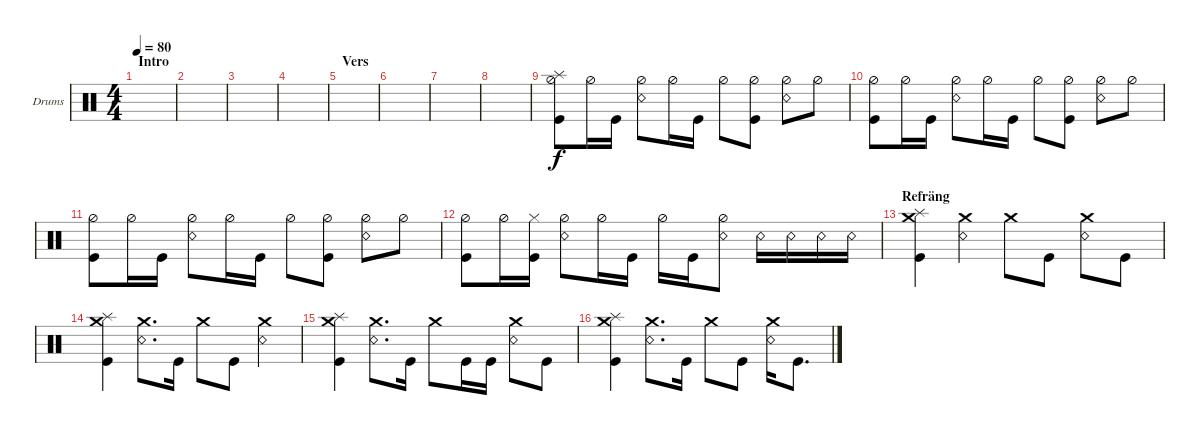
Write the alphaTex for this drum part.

\defaultSystemsLayout 4
\bracketExtendMode groupsimilarinstruments
\firstSystemTrackNameOrientation horizontal
\otherSystemsTrackNameOrientation horizontal
\track ("Drums" "Drums") {instrument percussion}
\staff {score}
\articulation defaults
\ts (4 4)
\section ("" "Intro")
\tempo 80
\clef neutral
\ks c
|
|
|
|
\section ("" "Vers")
|
|
|
|
("Hi-Hat (half)" "Kick (hit)" "Splash (hit)").8 "Hi-Hat (half)".16 "Kick (hit)".16 ("Hi-Hat (half)" "Snare (rim shot)").8 "Hi-Hat (half)".16 "Kick (hit)".16 "Hi-Hat (half)".8 ("Hi-Hat (half)" "Kick (hit)").8 ("Hi-Hat (half)" "Snare (rim shot)").8 "Hi-Hat (half)".8 |
("Hi-Hat (half)" "Kick (hit)").8 "Hi-Hat (half)".16 "Kick (hit)".16 ("Hi-Hat (half)" "Snare (rim shot)").8 "Hi-Hat (half)".16 "Kick (hit)".16 "Hi-Hat (half)".8 ("Hi-Hat (half)" "Kick (hit)").8 ("Hi-Hat (half)" "Snare (rim shot)").8 "Hi-Hat (half)".8 |
("Hi-Hat (half)" "Kick (hit)").8 "Hi-Hat (half)".16 "Kick (hit)".16 ("Hi-Hat (half)" "Snare (rim shot)").8 "Hi-Hat (half)".16 "Kick (hit)".16 "Hi-Hat (half)".8 ("Hi-Hat (half)" "Kick (hit)").8 ("Hi-Hat (half)" "Snare (rim shot)").8 "Hi-Hat (half)".8 |
("Hi-Hat (half)" "Kick (hit)").8 "Hi-Hat (half)".16 ("Kick (hit)" "Hi-Hat (closed)").16 ("Hi-Hat (half)" "Snare (rim shot)").8 "Hi-Hat (half)".16 "Kick (hit)".16 "Hi-Hat (half)".16 "Kick (hit)".16 ("Hi-Hat (half)" "Snare (rim shot)").8 "Snare (rim shot)".16 "Snare (rim shot)".16 "Snare (rim shot)".16 "Snare (rim shot)".16 |
\section ("" "Refräng")
("Kick (hit)" "Crash medium (hit)" "Splash (hit)").4 ("Snare (rim shot)" "Crash medium (hit)").4 "Crash medium (hit)".8 "Kick (hit)".8 ("Snare (rim shot)" "Crash medium (hit)").8 "Kick (hit)".8 |
("Kick (hit)" "Crash medium (hit)" "Splash (hit)").4 ("Snare (rim shot)" "Crash medium (hit)").8{d} "Kick (hit)".16 "Crash medium (hit)".8 "Kick (hit)".8 ("Snare (rim shot)" "Crash medium (hit)").4 |
("Kick (hit)" "Crash medium (hit)" "Splash (hit)").4 ("Snare (rim shot)" "Crash medium (hit)").8{d} "Kick (hit)".16 "Crash medium (hit)".8 "Kick (hit)".16 "Kick (hit)".16 ("Snare (rim shot)" "Crash medium (hit)").8 "Kick (hit)".8 |
("Kick (hit)" "Crash medium (hit)" "Splash (hit)").4 ("Snare (rim shot)" "Crash medium (hit)").8{d} "Kick (hit)".16 "Crash medium (hit)".8 "Kick (hit)".8 ("Snare (rim shot)" "Crash medium (hit)").16 "Kick (hit)".8{d}
